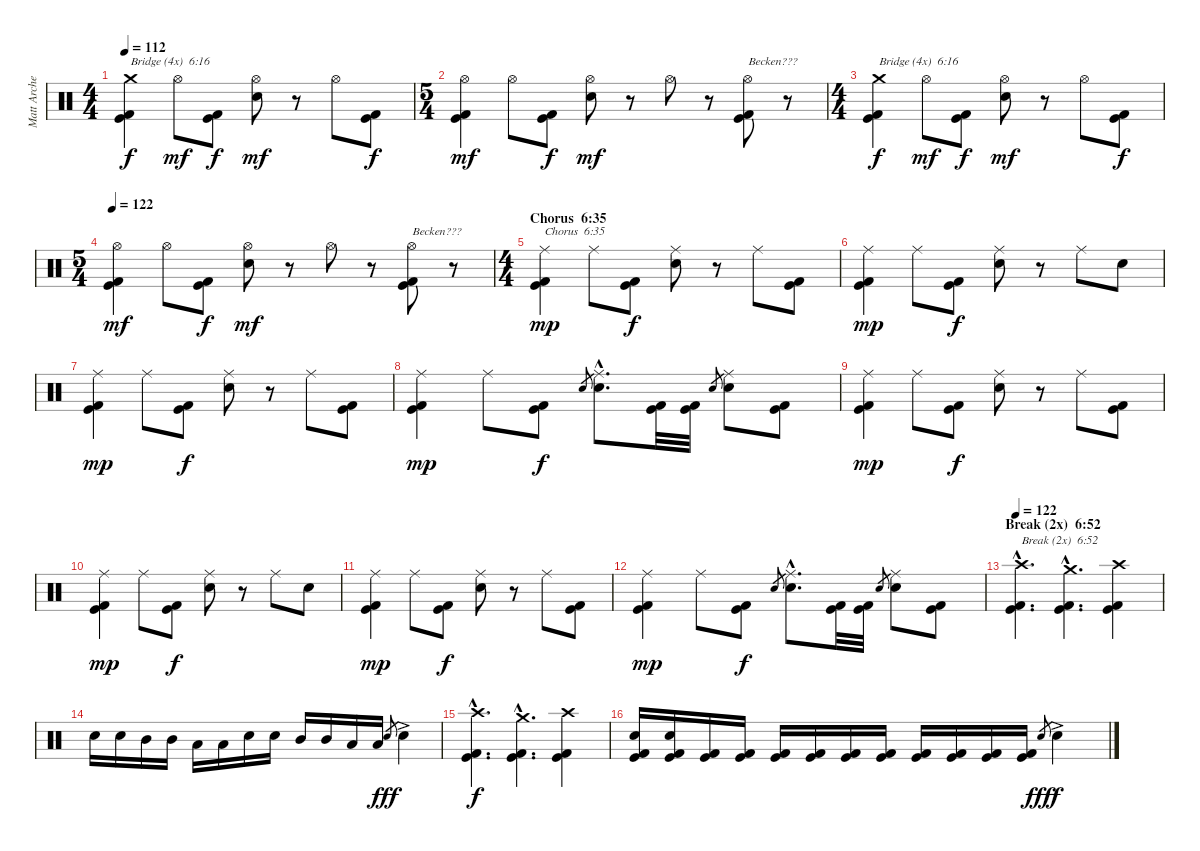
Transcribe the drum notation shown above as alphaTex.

\track ("Matt Archer" "Matt Arche") {instrument percussion}
\staff {score}
\articulation defaults
\ts (4 4)
\tempo 112
\clef neutral
\ks c
("Kick (hit)" "Kick (hit) 2" "Crash medium (hit)").4{txt "Bridge (4x)  6:16  " dy f} "Hi-Hat (open)".8{dy mf} ("Kick (hit)" "Kick (hit) 2").8{dy f} ("Electric Snare (hit)" "Hi-Hat (open)").8{dy mf} r.8 "Hi-Hat (open)".8 ("Kick (hit)" "Kick (hit) 2").8{dy f} |
\ts (5 4)
("Kick (hit)" "Kick (hit) 2" "Hi-Hat (open)").4{dy mf} "Hi-Hat (open)".8 ("Kick (hit)" "Kick (hit) 2").8{dy f} ("Electric Snare (hit)" "Hi-Hat (open)").8{dy mf} r.8 "Hi-Hat (open)".8 r.8 ("Kick (hit)" "Kick (hit) 2" "Hi-Hat (open)").8{txt "Becken???"} r.8 |
\ts (4 4)
("Kick (hit)" "Kick (hit) 2" "Crash medium (hit)").4{txt "Bridge (4x)  6:16  " dy f} "Hi-Hat (open)".8{dy mf} ("Kick (hit)" "Kick (hit) 2").8{dy f} ("Electric Snare (hit)" "Hi-Hat (open)").8{dy mf} r.8 "Hi-Hat (open)".8 ("Kick (hit)" "Kick (hit) 2").8{dy f} |
\ts (5 4)
\tempo 122
("Kick (hit)" "Kick (hit) 2" "Hi-Hat (open)").4{dy mf} "Hi-Hat (open)".8 ("Kick (hit)" "Kick (hit) 2").8{dy f} ("Electric Snare (hit)" "Hi-Hat (open)").8{dy mf} r.8 "Hi-Hat (open)".8 r.8 ("Kick (hit)" "Kick (hit) 2" "Hi-Hat (open)").8{txt "Becken???"} r.8 |
\ts (4 4)
\section ("" "Chorus  6:35")
("Kick (hit)" "Kick (hit) 2" "Ride (middle)").4{txt "Chorus  6:35" dy mp} "Ride (middle)".8 ("Kick (hit)" "Kick (hit) 2").8{dy f} ("Electric Snare (hit)" "Ride (middle)").8 r.8 "Ride (middle)".8 ("Kick (hit)" "Kick (hit) 2").8 |
("Kick (hit)" "Kick (hit) 2" "Ride (middle)").4{dy mp} "Ride (middle)".8 ("Kick (hit)" "Kick (hit) 2").8{dy f} ("Electric Snare (hit)" "Ride (middle)").8 r.8 "Ride (middle)".8 "Electric Snare (hit)".8 |
("Kick (hit)" "Kick (hit) 2" "Ride (middle)").4{dy mp} "Ride (middle)".8 ("Kick (hit)" "Kick (hit) 2").8{dy f} ("Electric Snare (hit)" "Ride (middle)").8 r.8 "Ride (middle)".8 ("Kick (hit)" "Kick (hit) 2").8 |
("Kick (hit)" "Kick (hit) 2" "Ride (middle)").4{dy mp} "Ride (middle)".8 ("Kick (hit)" "Kick (hit) 2").8{dy f} "Electric Snare (hit)".8{gr} ("Electric Snare (hit)"{hac} "Ride (middle)"{hac}).8{d} ("Kick (hit)" "Kick (hit) 2").32 ("Kick (hit)" "Kick (hit) 2").32 "Electric Snare (hit)".8{gr} ("Electric Snare (hit)" "Ride (middle)").8 ("Kick (hit)" "Kick (hit) 2").8 |
("Kick (hit)" "Kick (hit) 2" "Ride (middle)").4{dy mp} "Ride (middle)".8 ("Kick (hit)" "Kick (hit) 2").8{dy f} ("Electric Snare (hit)" "Ride (middle)").8 r.8 "Ride (middle)".8 ("Kick (hit)" "Kick (hit) 2").8 |
("Kick (hit)" "Kick (hit) 2" "Ride (middle)").4{dy mp} "Ride (middle)".8 ("Kick (hit)" "Kick (hit) 2").8{dy f} ("Electric Snare (hit)" "Ride (middle)").8 r.8 "Ride (middle)".8 "Electric Snare (hit)".8 |
("Kick (hit)" "Kick (hit) 2" "Ride (middle)").4{dy mp} "Ride (middle)".8 ("Kick (hit)" "Kick (hit) 2").8{dy f} ("Electric Snare (hit)" "Ride (middle)").8 r.8 "Ride (middle)".8 ("Kick (hit)" "Kick (hit) 2").8 |
("Kick (hit)" "Kick (hit) 2" "Ride (middle)").4{dy mp} "Ride (middle)".8 ("Kick (hit)" "Kick (hit) 2").8{dy f} "Electric Snare (hit)".8{gr} ("Electric Snare (hit)"{hac} "Ride (middle)"{hac}).8{d} ("Kick (hit)" "Kick (hit) 2").32 ("Kick (hit)" "Kick (hit) 2").32 "Electric Snare (hit)".8{gr} ("Electric Snare (hit)" "Ride (middle)").8 ("Kick (hit)" "Kick (hit) 2").8 |
\section ("" "Break (2x)  6:52")
\tempo 122
("Kick (hit)"{hac} "Kick (hit) 2"{hac} "Crash high (hit)"{hac}).4{d txt "Break (2x)  6:52"} ("Kick (hit)"{hac} "Kick (hit) 2"{hac} "Crash medium (hit)"{hac}).4{d} ("Kick (hit)" "Kick (hit) 2" "Crash high (hit)").4 |
"Electric Snare (hit)".16 "Electric Snare (hit)".16 "Mid Tom (hit)".16 "Mid Tom (hit)".16 "Low Tom (hit)".16 "Low Tom (hit)".16 "Electric Snare (hit)".16 "Electric Snare (hit)".16 "Mid Tom (hit)".16 "Mid Tom (hit)".16 "Low Tom (hit)".16 "Low Tom (hit)".16 "Electric Snare (hit)".8{gr dy fff} "Electric Snare (hit)"{ac}.4 |
("Kick (hit)"{hac} "Kick (hit) 2"{hac} "Crash high (hit)"{hac}).4{d dy f} ("Kick (hit)"{hac} "Kick (hit) 2"{hac} "Crash medium (hit)"{hac}).4{d} ("Kick (hit)" "Kick (hit) 2" "Crash high (hit)").4 |
("Kick (hit)" "Kick (hit) 2" "Electric Snare (hit)").16 ("Kick (hit)" "Kick (hit) 2" "Electric Snare (hit)").16 ("Kick (hit)" "Kick (hit) 2").16 ("Kick (hit)" "Kick (hit) 2").16 ("Kick (hit)" "Kick (hit) 2").16 ("Kick (hit)" "Kick (hit) 2").16 ("Kick (hit)" "Kick (hit) 2").16 ("Kick (hit)" "Kick (hit) 2").16 ("Kick (hit)" "Kick (hit) 2").16 ("Kick (hit)" "Kick (hit) 2").16 ("Kick (hit)" "Kick (hit) 2").16 ("Kick (hit)" "Kick (hit) 2").16 "Electric Snare (hit)".8{gr dy fff} "Electric Snare (hit)"{ac}.4{dy f}
